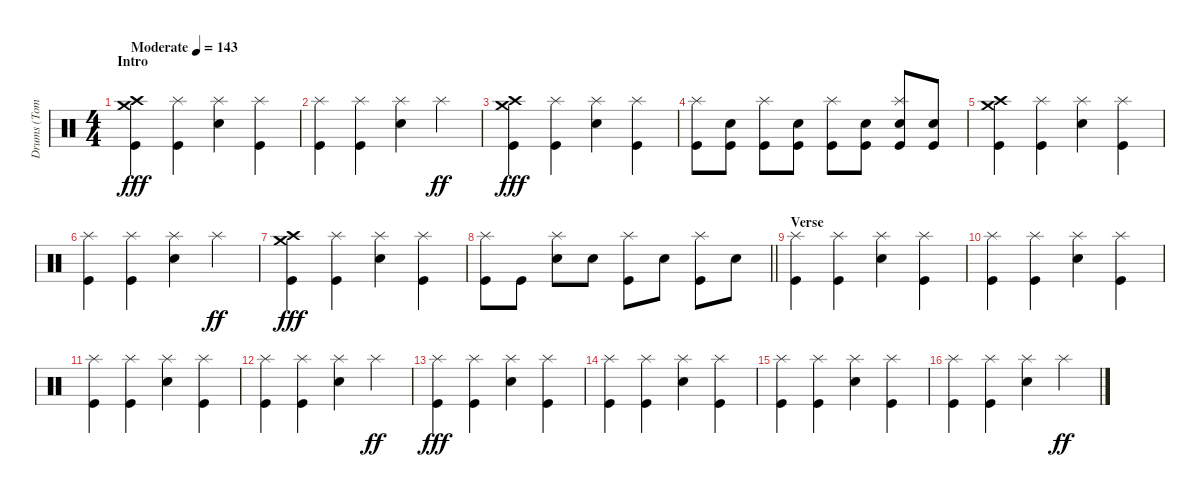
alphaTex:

\track ("Drums (Tommy Clufetos)" "Drums (Tom") {instrument percussion}
\staff {score}
\articulation defaults
\ts (4 4)
\section ("" "Intro")
\tempo (143 "Moderate")
\clef neutral
\ks c
("Crash high (hit)" "Crash medium (hit)" "Kick (hit)").4{dy fff} ("Splash (hit)" "Kick (hit)").4 ("Splash (hit)" "Electric Snare (hit)").4 ("Splash (hit)" "Kick (hit)").4 |
("Splash (hit)" "Kick (hit)").4 ("Splash (hit)" "Kick (hit)").4 ("Splash (hit)" "Electric Snare (hit)").4 "Splash (hit)".4{dy ff} |
("Crash high (hit)" "Crash medium (hit)" "Kick (hit)").4{dy fff} ("Splash (hit)" "Kick (hit)").4 ("Splash (hit)" "Electric Snare (hit)").4 ("Splash (hit)" "Kick (hit)").4 |
("Splash (hit)" "Kick (hit)").8 ("Electric Snare (hit)" "Kick (hit)").8 ("Splash (hit)" "Kick (hit)").8 ("Electric Snare (hit)" "Kick (hit)").8 ("Splash (hit)" "Kick (hit)").8 ("Electric Snare (hit)" "Kick (hit)").8 ("Splash (hit)" "Electric Snare (hit)" "Kick (hit)").8 ("Electric Snare (hit)" "Kick (hit)").8 |
("Crash high (hit)" "Crash medium (hit)" "Kick (hit)").4 ("Splash (hit)" "Kick (hit)").4 ("Splash (hit)" "Electric Snare (hit)").4 ("Splash (hit)" "Kick (hit)").4 |
("Splash (hit)" "Kick (hit)").4 ("Splash (hit)" "Kick (hit)").4 ("Splash (hit)" "Electric Snare (hit)").4 "Splash (hit)".4{dy ff} |
("Crash high (hit)" "Crash medium (hit)" "Kick (hit)").4{dy fff} ("Splash (hit)" "Kick (hit)").4 ("Splash (hit)" "Electric Snare (hit)").4 ("Splash (hit)" "Kick (hit)").4 |
\barLineRight lightlight
("Splash (hit)" "Kick (hit)").8 "Kick (hit)".8 ("Splash (hit)" "Electric Snare (hit)").8 "Electric Snare (hit)".8 ("Splash (hit)" "Kick (hit)").8 "Electric Snare (hit)".8 ("Splash (hit)" "Kick (hit)").8 "Electric Snare (hit)".8 |
\section ("" "Verse")
("Splash (hit)" "Kick (hit)").4 ("Splash (hit)" "Kick (hit)").4 ("Splash (hit)" "Electric Snare (hit)").4 ("Splash (hit)" "Kick (hit)").4 |
("Splash (hit)" "Kick (hit)").4 ("Splash (hit)" "Kick (hit)").4 ("Splash (hit)" "Electric Snare (hit)").4 ("Splash (hit)" "Kick (hit)").4 |
("Splash (hit)" "Kick (hit)").4 ("Splash (hit)" "Kick (hit)").4 ("Splash (hit)" "Electric Snare (hit)").4 ("Splash (hit)" "Kick (hit)").4 |
("Splash (hit)" "Kick (hit)").4 ("Splash (hit)" "Kick (hit)").4 ("Splash (hit)" "Electric Snare (hit)").4 "Splash (hit)".4{dy ff} |
("Splash (hit)" "Kick (hit)").4{dy fff} ("Splash (hit)" "Kick (hit)").4 ("Splash (hit)" "Electric Snare (hit)").4 ("Splash (hit)" "Kick (hit)").4 |
("Splash (hit)" "Kick (hit)").4 ("Splash (hit)" "Kick (hit)").4 ("Splash (hit)" "Electric Snare (hit)").4 ("Splash (hit)" "Kick (hit)").4 |
("Splash (hit)" "Kick (hit)").4 ("Splash (hit)" "Kick (hit)").4 ("Splash (hit)" "Electric Snare (hit)").4 ("Splash (hit)" "Kick (hit)").4 |
("Splash (hit)" "Kick (hit)").4 ("Splash (hit)" "Kick (hit)").4 ("Splash (hit)" "Electric Snare (hit)").4 "Splash (hit)".4{dy ff}
